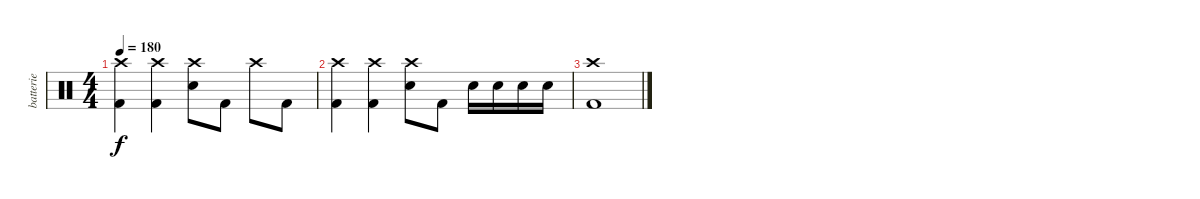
\track ("batterie" "batterie") {instrument percussion}
\staff {score}
\articulation defaults
\ts (4 4)
\tempo 180
\clef neutral
\ks c
("Crash high (hit)" "Kick (hit) 2").4{dy f} ("Crash high (hit)" "Kick (hit) 2").4 ("Crash high (hit)" "Electric Snare (hit)").8 "Kick (hit) 2".8 "Crash high (hit)".8 "Kick (hit) 2".8 |
("Crash high (hit)" "Kick (hit) 2").4 ("Crash high (hit)" "Kick (hit) 2").4 ("Crash high (hit)" "Electric Snare (hit)").8 "Kick (hit) 2".8 "Electric Snare (hit)".16 "Electric Snare (hit)".16 "Electric Snare (hit)".16 "Electric Snare (hit)".16 |
("Crash high (hit)" "Kick (hit) 2").1
